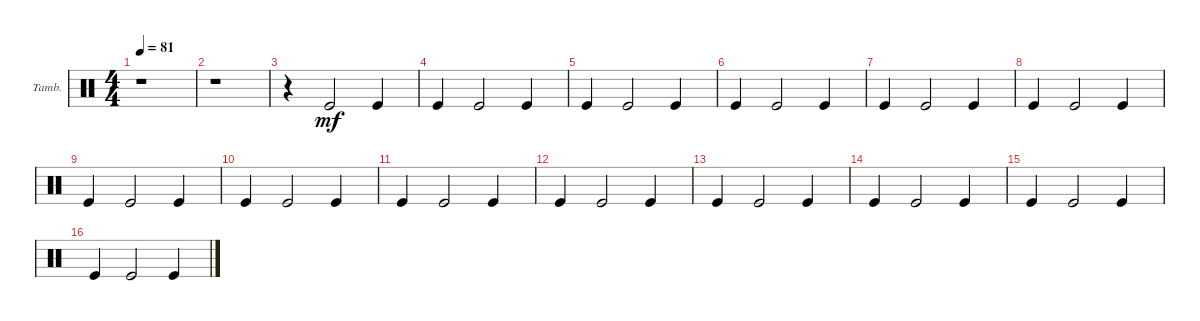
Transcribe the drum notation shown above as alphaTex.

\bracketExtendMode groupsimilarinstruments
\firstSystemTrackNameOrientation horizontal
\otherSystemsTrackNameOrientation horizontal
\track ("Tambourine" "Tamb.") {instrument percussion}
\staff {score}
\articulation defaults
\ts (4 4)
\tempo 81
\clef neutral
\ks c
r.1{dy mf} |
r.1 |
r.4 "Kick (hit)".2 "Kick (hit)".4 |
"Kick (hit)".4 "Kick (hit)".2 "Kick (hit)".4 |
"Kick (hit)".4 "Kick (hit)".2 "Kick (hit)".4 |
"Kick (hit)".4 "Kick (hit)".2 "Kick (hit)".4 |
"Kick (hit)".4 "Kick (hit)".2 "Kick (hit)".4 |
"Kick (hit)".4 "Kick (hit)".2 "Kick (hit)".4 |
"Kick (hit)".4 "Kick (hit)".2 "Kick (hit)".4 |
"Kick (hit)".4 "Kick (hit)".2 "Kick (hit)".4 |
"Kick (hit)".4 "Kick (hit)".2 "Kick (hit)".4 |
"Kick (hit)".4 "Kick (hit)".2 "Kick (hit)".4 |
"Kick (hit)".4 "Kick (hit)".2 "Kick (hit)".4 |
"Kick (hit)".4 "Kick (hit)".2 "Kick (hit)".4 |
"Kick (hit)".4 "Kick (hit)".2 "Kick (hit)".4 |
"Kick (hit)".4 "Kick (hit)".2 "Kick (hit)".4
